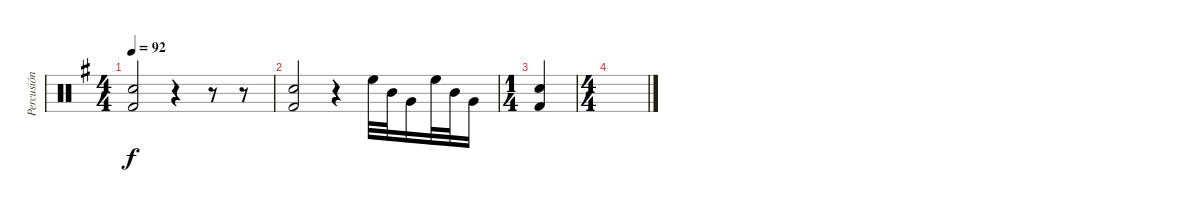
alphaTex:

\track ("Percusión" "Percusión") {instrument percussion}
\staff {score}
\articulation defaults
\ts (4 4)
\tempo 92
\clef neutral
\ks g
("Kick (hit) 2" "Snare (hit) 2").2{dy f} r.4 r.8 r.8 |
("Kick (hit) 2" "Snare (hit) 2").2 r.4 "High Floor Tom (hit)".32 "Mid Tom (hit)".32 "Very Low Tom (hit)".16 "High Floor Tom (hit)".32 "Mid Tom (hit)".32 "Very Low Tom (hit)".16 |
\ts (1 4)
("Kick (hit) 2" "Snare (hit) 2").4 |
\ts (4 4)
